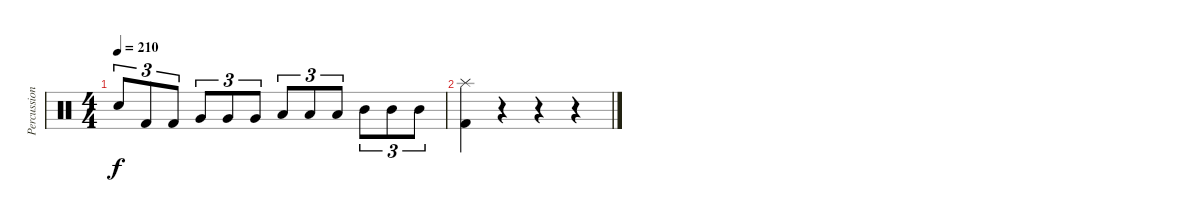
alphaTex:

\track ("Percussions" "Percussion") {instrument percussion}
\staff {score}
\articulation defaults
\ts (4 4)
\tempo 210
\clef neutral
\ks c "Snare (hit) 2".8{tu (3 2) dy f} "Kick (hit) 2".8{tu (3 2)} "Kick (hit) 2".8{tu (3 2)} "Very Low Tom (hit)".8{tu (3 2)} "Very Low Tom (hit)".8{tu (3 2)} "Very Low Tom (hit)".8{tu (3 2)} "Low Tom (hit)".8{tu (3 2)} "Low Tom (hit)".8{tu (3 2)} "Low Tom (hit)".8{tu (3 2)} "Mid Tom (hit)".8{tu (3 2)} "Mid Tom (hit)".8{tu (3 2)} "Mid Tom (hit)".8{tu (3 2)}
|
("Splash (hit)" "Kick (hit) 2").4 r.4 r.4 r.4
